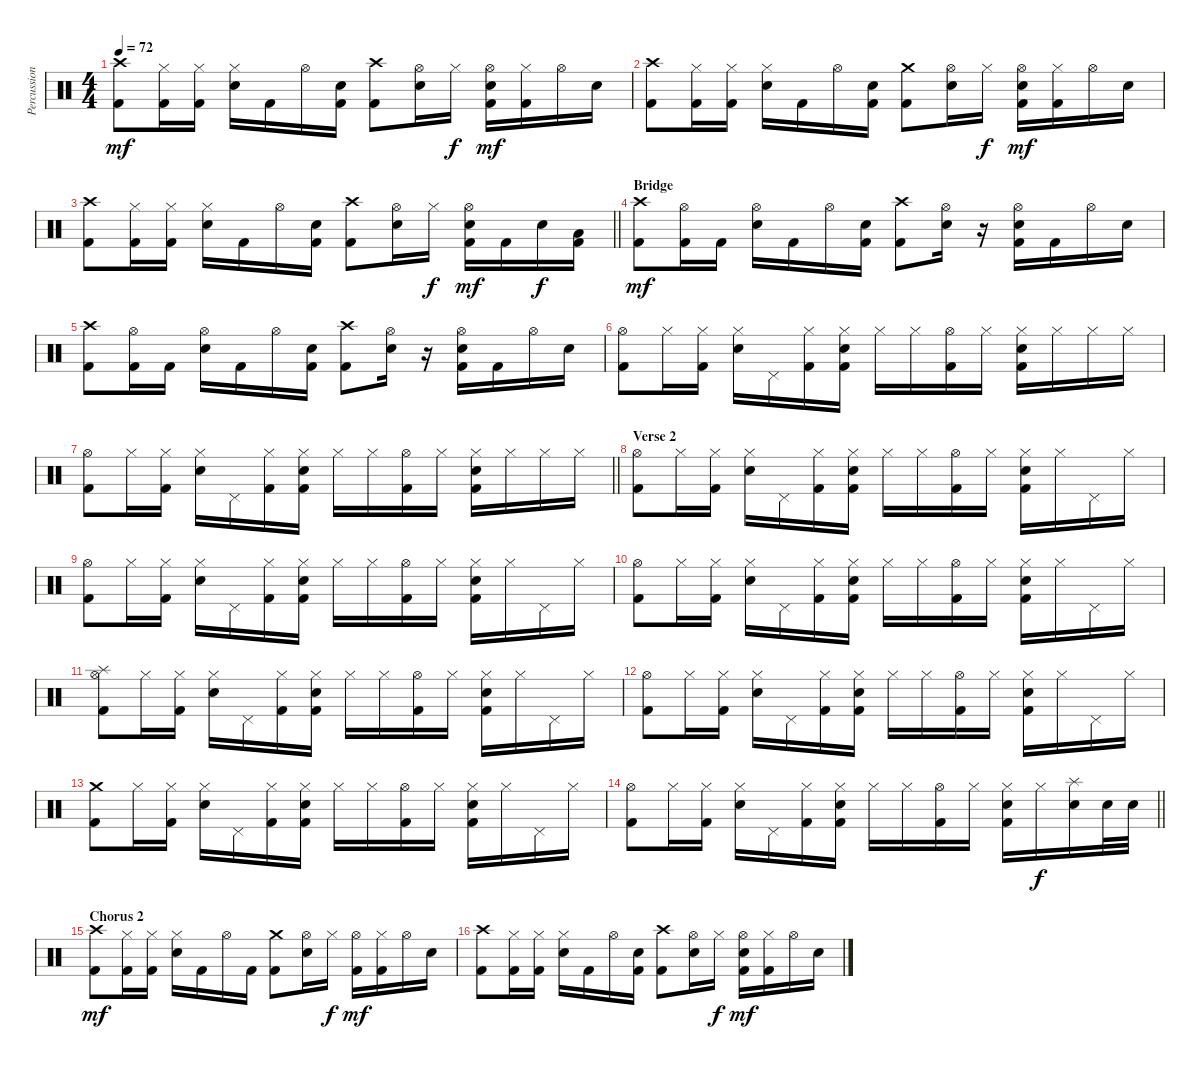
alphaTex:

\track ("Percussion" "Percussion") {instrument percussion}
\staff {score}
\articulation defaults
\ts (4 4)
\tempo 72
\clef neutral
\ks c
("Crash high (hit)" "Kick (hit) 2").8{dy mf} ("Hi-Hat (closed)" "Kick (hit) 2").16 ("Hi-Hat (closed)" "Kick (hit) 2").16 ("Hi-Hat (closed)" "Snare (hit) 2").16 "Kick (hit) 2".16 "Hi-Hat (open)".16 ("Snare (hit) 2" "Kick (hit) 2").16 ("Crash high (hit)" "Kick (hit) 2").8 ("Hi-Hat (open)" "Snare (hit) 2").16 "Hi-Hat (closed)".16{dy f} ("Hi-Hat (open)" "Snare (hit) 2" "Kick (hit) 2").16{dy mf} ("Hi-Hat (closed)" "Kick (hit) 2").16 "Hi-Hat (open)".16 "Snare (hit) 2".16 |
("Crash high (hit)" "Kick (hit) 2").8 ("Hi-Hat (closed)" "Kick (hit) 2").16 ("Hi-Hat (closed)" "Kick (hit) 2").16 ("Hi-Hat (closed)" "Snare (hit) 2").16 "Kick (hit) 2".16 "Hi-Hat (open)".16 ("Snare (hit) 2" "Kick (hit) 2").16 ("Crash medium (hit)" "Kick (hit) 2").8 ("Hi-Hat (open)" "Snare (hit) 2").16 "Hi-Hat (closed)".16{dy f} ("Hi-Hat (open)" "Snare (hit) 2" "Kick (hit) 2").16{dy mf} ("Hi-Hat (closed)" "Kick (hit) 2").16 "Hi-Hat (open)".16 "Snare (hit) 2".16 |
\barLineRight lightlight
("Crash high (hit)" "Kick (hit) 2").8 ("Hi-Hat (closed)" "Kick (hit) 2").16 ("Hi-Hat (closed)" "Kick (hit) 2").16 ("Hi-Hat (closed)" "Snare (hit) 2").16 "Kick (hit) 2".16 "Hi-Hat (open)".16 ("Snare (hit) 2" "Kick (hit) 2").16 ("Crash high (hit)" "Kick (hit) 2").8 ("Hi-Hat (open)" "Snare (hit) 2").16 "Hi-Hat (closed)".16{dy f} ("Hi-Hat (open)" "Snare (hit) 2" "Kick (hit) 2").16{dy mf} "Kick (hit) 2".16 "Snare (hit) 2".16{dy f} ("Low Floor Tom (hit)" "Kick (hit) 2").16 |
\section ("" "Bridge")
("Crash high (hit)" "Kick (hit) 2").8{dy mf} ("Hi-Hat (open)" "Kick (hit) 2").16 "Kick (hit) 2".16 ("Hi-Hat (open)" "Snare (hit) 2").16 "Kick (hit) 2".16 "Hi-Hat (open)".16 ("Snare (hit) 2" "Kick (hit) 2").16 ("Crash high (hit)" "Kick (hit) 2").8 ("Hi-Hat (open)" "Snare (hit) 2").16 r.16 ("Hi-Hat (open)" "Snare (hit) 2" "Kick (hit) 2").16 "Kick (hit) 2".16 "Hi-Hat (open)".16 "Snare (hit) 2".16 |
("Crash high (hit)" "Kick (hit) 2").8 ("Hi-Hat (open)" "Kick (hit) 2").16 "Kick (hit) 2".16 ("Hi-Hat (open)" "Snare (hit) 2").16 "Kick (hit) 2".16 "Hi-Hat (open)".16 ("Snare (hit) 2" "Kick (hit) 2").16 ("Crash high (hit)" "Kick (hit) 2").8 ("Hi-Hat (open)" "Snare (hit) 2").16 r.16 ("Hi-Hat (open)" "Snare (hit) 2" "Kick (hit) 2").16 "Kick (hit) 2".16 "Hi-Hat (open)".16 "Snare (hit) 2".16 |
("Hi-Hat (open)" "Kick (hit) 2").8 "Hi-Hat (closed)".16 ("Hi-Hat (closed)" "Kick (hit) 2").16 ("Hi-Hat (closed)" "Snare (hit) 2").16 "Pedal Hi-Hat (hit)".16 ("Hi-Hat (closed)" "Kick (hit) 2").16 ("Hi-Hat (closed)" "Snare (hit) 2" "Kick (hit) 2").16 "Hi-Hat (closed)".16 "Hi-Hat (closed)".16 ("Hi-Hat (open)" "Kick (hit) 2").16 "Hi-Hat (closed)".16 ("Hi-Hat (closed)" "Snare (hit) 2" "Kick (hit) 2").16 "Hi-Hat (closed)".16 "Hi-Hat (closed)".16 "Hi-Hat (closed)".16 |
\barLineRight lightlight
("Hi-Hat (open)" "Kick (hit) 2").8 "Hi-Hat (closed)".16 ("Hi-Hat (closed)" "Kick (hit) 2").16 ("Hi-Hat (closed)" "Snare (hit) 2").16 "Pedal Hi-Hat (hit)".16 ("Hi-Hat (closed)" "Kick (hit) 2").16 ("Hi-Hat (closed)" "Snare (hit) 2" "Kick (hit) 2").16 "Hi-Hat (closed)".16 "Hi-Hat (closed)".16 ("Hi-Hat (open)" "Kick (hit) 2").16 "Hi-Hat (closed)".16 ("Hi-Hat (closed)" "Snare (hit) 2" "Kick (hit) 2").16 "Hi-Hat (closed)".16 "Hi-Hat (closed)".16 "Hi-Hat (closed)".16 |
\section ("" "Verse 2")
("Hi-Hat (open)" "Kick (hit) 2").8 "Hi-Hat (closed)".16 ("Hi-Hat (closed)" "Kick (hit) 2").16 ("Hi-Hat (closed)" "Snare (hit) 2").16 "Pedal Hi-Hat (hit)".16 ("Hi-Hat (closed)" "Kick (hit) 2").16 ("Hi-Hat (closed)" "Snare (hit) 2" "Kick (hit) 2").16 "Hi-Hat (closed)".16 "Hi-Hat (closed)".16 ("Hi-Hat (open)" "Kick (hit) 2").16 "Hi-Hat (closed)".16 ("Hi-Hat (closed)" "Snare (hit) 2" "Kick (hit) 2").16 "Hi-Hat (closed)".16 "Pedal Hi-Hat (hit)".16 "Hi-Hat (closed)".16 |
("Hi-Hat (open)" "Kick (hit) 2").8 "Hi-Hat (closed)".16 ("Hi-Hat (closed)" "Kick (hit) 2").16 ("Hi-Hat (closed)" "Snare (hit) 2").16 "Pedal Hi-Hat (hit)".16 ("Hi-Hat (closed)" "Kick (hit) 2").16 ("Hi-Hat (closed)" "Snare (hit) 2" "Kick (hit) 2").16 "Hi-Hat (closed)".16 "Hi-Hat (closed)".16 ("Hi-Hat (open)" "Kick (hit) 2").16 "Hi-Hat (closed)".16 ("Hi-Hat (closed)" "Snare (hit) 2" "Kick (hit) 2").16 "Hi-Hat (closed)".16 "Pedal Hi-Hat (hit)".16 "Hi-Hat (closed)".16 |
("Hi-Hat (open)" "Kick (hit) 2").8 "Hi-Hat (closed)".16 ("Hi-Hat (closed)" "Kick (hit) 2").16 ("Hi-Hat (closed)" "Snare (hit) 2").16 "Pedal Hi-Hat (hit)".16 ("Hi-Hat (closed)" "Kick (hit) 2").16 ("Hi-Hat (closed)" "Snare (hit) 2" "Kick (hit) 2").16 "Hi-Hat (closed)".16 "Hi-Hat (closed)".16 ("Hi-Hat (open)" "Kick (hit) 2").16 "Hi-Hat (closed)".16 ("Hi-Hat (closed)" "Snare (hit) 2" "Kick (hit) 2").16 "Hi-Hat (closed)".16 "Pedal Hi-Hat (hit)".16 "Hi-Hat (closed)".16 |
("Hi-Hat (open)" "Splash (hit)" "Kick (hit) 2").8 "Hi-Hat (closed)".16 ("Hi-Hat (closed)" "Kick (hit) 2").16 ("Hi-Hat (closed)" "Snare (hit) 2").16 "Pedal Hi-Hat (hit)".16 ("Hi-Hat (closed)" "Kick (hit) 2").16 ("Hi-Hat (closed)" "Snare (hit) 2" "Kick (hit) 2").16 "Hi-Hat (closed)".16 "Hi-Hat (closed)".16 ("Hi-Hat (open)" "Kick (hit) 2").16 "Hi-Hat (closed)".16 ("Hi-Hat (closed)" "Snare (hit) 2" "Kick (hit) 2").16 "Hi-Hat (closed)".16 "Pedal Hi-Hat (hit)".16 "Hi-Hat (closed)".16 |
("Hi-Hat (open)" "Kick (hit) 2").8 "Hi-Hat (closed)".16 ("Hi-Hat (closed)" "Kick (hit) 2").16 ("Hi-Hat (closed)" "Snare (hit) 2").16 "Pedal Hi-Hat (hit)".16 ("Hi-Hat (closed)" "Kick (hit) 2").16 ("Hi-Hat (closed)" "Snare (hit) 2" "Kick (hit) 2").16 "Hi-Hat (closed)".16 "Hi-Hat (closed)".16 ("Hi-Hat (open)" "Kick (hit) 2").16 "Hi-Hat (closed)".16 ("Hi-Hat (closed)" "Snare (hit) 2" "Kick (hit) 2").16 "Hi-Hat (closed)".16 "Pedal Hi-Hat (hit)".16 "Hi-Hat (closed)".16 |
("Crash medium (hit)" "Kick (hit) 2").8 "Hi-Hat (closed)".16 ("Hi-Hat (closed)" "Kick (hit) 2").16 ("Hi-Hat (closed)" "Snare (hit) 2").16 "Pedal Hi-Hat (hit)".16 ("Hi-Hat (closed)" "Kick (hit) 2").16 ("Hi-Hat (closed)" "Snare (hit) 2" "Kick (hit) 2").16 "Hi-Hat (closed)".16 "Hi-Hat (closed)".16 ("Hi-Hat (open)" "Kick (hit) 2").16 "Hi-Hat (closed)".16 ("Hi-Hat (closed)" "Snare (hit) 2" "Kick (hit) 2").16 "Hi-Hat (closed)".16 "Pedal Hi-Hat (hit)".16 "Hi-Hat (closed)".16 |
\barLineRight lightlight
("Hi-Hat (open)" "Kick (hit) 2").8 "Hi-Hat (closed)".16 ("Hi-Hat (closed)" "Kick (hit) 2").16 ("Hi-Hat (closed)" "Snare (hit) 2").16 "Pedal Hi-Hat (hit)".16 ("Hi-Hat (closed)" "Kick (hit) 2").16 ("Hi-Hat (closed)" "Snare (hit) 2" "Kick (hit) 2").16 "Hi-Hat (closed)".16 "Hi-Hat (closed)".16 ("Hi-Hat (open)" "Kick (hit) 2").16 "Hi-Hat (closed)".16 ("Hi-Hat (closed)" "Snare (hit) 2" "Kick (hit) 2").16 "Hi-Hat (closed)".16{dy f} ("Splash (hit)" "Snare (hit) 2").16 "Snare (hit) 2".32 "Snare (hit) 2".32 |
\section ("" "Chorus 2")
("Crash high (hit)" "Kick (hit) 2").8{dy mf} ("Hi-Hat (closed)" "Kick (hit) 2").16 ("Hi-Hat (closed)" "Kick (hit) 2").16 ("Hi-Hat (closed)" "Snare (hit) 2").16 "Kick (hit) 2".16 "Hi-Hat (open)".16 "Kick (hit) 2".16 ("Crash medium (hit)" "Kick (hit) 2").8 ("Hi-Hat (open)" "Snare (hit) 2").16 "Hi-Hat (closed)".16{dy f} ("Hi-Hat (open)" "Kick (hit) 2").16{dy mf} ("Hi-Hat (closed)" "Kick (hit) 2").16 "Hi-Hat (open)".16 "Snare (hit) 2".16 |
("Crash high (hit)" "Kick (hit) 2").8 ("Hi-Hat (closed)" "Kick (hit) 2").16 ("Hi-Hat (closed)" "Kick (hit) 2").16 ("Hi-Hat (closed)" "Snare (hit) 2").16 "Kick (hit) 2".16 "Hi-Hat (open)".16 ("Snare (hit) 2" "Kick (hit) 2").16 ("Crash high (hit)" "Kick (hit) 2").8 ("Hi-Hat (open)" "Snare (hit) 2").16 "Hi-Hat (closed)".16{dy f} ("Hi-Hat (open)" "Snare (hit) 2" "Kick (hit) 2").16{dy mf} ("Hi-Hat (closed)" "Kick (hit) 2").16 "Hi-Hat (open)".16 "Snare (hit) 2".16
